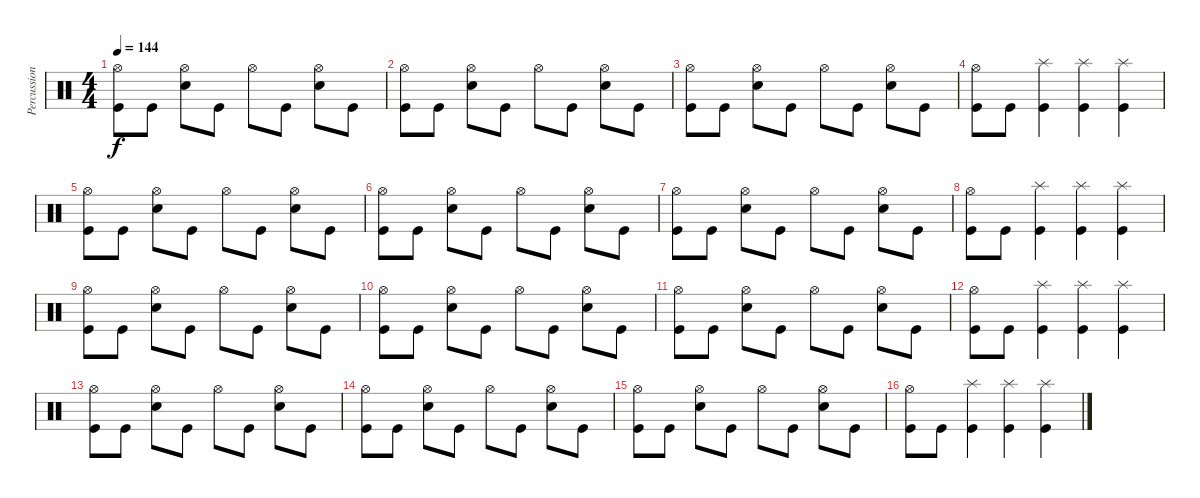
\track ("Percussion" "Percussion") {instrument percussion}
\staff {score}
\articulation defaults
\ts (4 4)
\tempo 144
\clef neutral
\ks c
("Hi-Hat (open)" "Kick (hit)").8{dy f} "Kick (hit)".8 ("Hi-Hat (open)" "Snare (hit) 2").8 "Kick (hit)".8 "Hi-Hat (open)".8 "Kick (hit)".8 ("Hi-Hat (open)" "Snare (hit) 2").8 "Kick (hit)".8 |
("Hi-Hat (open)" "Kick (hit)").8 "Kick (hit)".8 ("Hi-Hat (open)" "Snare (hit) 2").8 "Kick (hit)".8 "Hi-Hat (open)".8 "Kick (hit)".8 ("Hi-Hat (open)" "Snare (hit) 2").8 "Kick (hit)".8 |
("Hi-Hat (open)" "Kick (hit)").8 "Kick (hit)".8 ("Hi-Hat (open)" "Snare (hit) 2").8 "Kick (hit)".8 "Hi-Hat (open)".8 "Kick (hit)".8 ("Hi-Hat (open)" "Snare (hit) 2").8 "Kick (hit)".8 |
("Hi-Hat (open)" "Kick (hit)").8 "Kick (hit)".8 ("Splash (hit)" "Kick (hit)").4 ("Splash (hit)" "Kick (hit)").4 ("Splash (hit)" "Kick (hit)").4 |
("Hi-Hat (open)" "Kick (hit)").8 "Kick (hit)".8 ("Hi-Hat (open)" "Snare (hit) 2").8 "Kick (hit)".8 "Hi-Hat (open)".8 "Kick (hit)".8 ("Hi-Hat (open)" "Snare (hit) 2").8 "Kick (hit)".8 |
("Hi-Hat (open)" "Kick (hit)").8 "Kick (hit)".8 ("Hi-Hat (open)" "Snare (hit) 2").8 "Kick (hit)".8 "Hi-Hat (open)".8 "Kick (hit)".8 ("Hi-Hat (open)" "Snare (hit) 2").8 "Kick (hit)".8 |
("Hi-Hat (open)" "Kick (hit)").8 "Kick (hit)".8 ("Hi-Hat (open)" "Snare (hit) 2").8 "Kick (hit)".8 "Hi-Hat (open)".8 "Kick (hit)".8 ("Hi-Hat (open)" "Snare (hit) 2").8 "Kick (hit)".8 |
("Hi-Hat (open)" "Kick (hit)").8 "Kick (hit)".8 ("Splash (hit)" "Kick (hit)").4 ("Splash (hit)" "Kick (hit)").4 ("Splash (hit)" "Kick (hit)").4 |
("Hi-Hat (open)" "Kick (hit)").8 "Kick (hit)".8 ("Hi-Hat (open)" "Snare (hit) 2").8 "Kick (hit)".8 "Hi-Hat (open)".8 "Kick (hit)".8 ("Hi-Hat (open)" "Snare (hit) 2").8 "Kick (hit)".8 |
("Hi-Hat (open)" "Kick (hit)").8 "Kick (hit)".8 ("Hi-Hat (open)" "Snare (hit) 2").8 "Kick (hit)".8 "Hi-Hat (open)".8 "Kick (hit)".8 ("Hi-Hat (open)" "Snare (hit) 2").8 "Kick (hit)".8 |
("Hi-Hat (open)" "Kick (hit)").8 "Kick (hit)".8 ("Hi-Hat (open)" "Snare (hit) 2").8 "Kick (hit)".8 "Hi-Hat (open)".8 "Kick (hit)".8 ("Hi-Hat (open)" "Snare (hit) 2").8 "Kick (hit)".8 |
("Hi-Hat (open)" "Kick (hit)").8 "Kick (hit)".8 ("Splash (hit)" "Kick (hit)").4 ("Splash (hit)" "Kick (hit)").4 ("Splash (hit)" "Kick (hit)").4 |
("Hi-Hat (open)" "Kick (hit)").8 "Kick (hit)".8 ("Hi-Hat (open)" "Snare (hit) 2").8 "Kick (hit)".8 "Hi-Hat (open)".8 "Kick (hit)".8 ("Hi-Hat (open)" "Snare (hit) 2").8 "Kick (hit)".8 |
("Hi-Hat (open)" "Kick (hit)").8 "Kick (hit)".8 ("Hi-Hat (open)" "Snare (hit) 2").8 "Kick (hit)".8 "Hi-Hat (open)".8 "Kick (hit)".8 ("Hi-Hat (open)" "Snare (hit) 2").8 "Kick (hit)".8 |
("Hi-Hat (open)" "Kick (hit)").8 "Kick (hit)".8 ("Hi-Hat (open)" "Snare (hit) 2").8 "Kick (hit)".8 "Hi-Hat (open)".8 "Kick (hit)".8 ("Hi-Hat (open)" "Snare (hit) 2").8 "Kick (hit)".8 |
("Hi-Hat (open)" "Kick (hit)").8 "Kick (hit)".8 ("Splash (hit)" "Kick (hit)").4 ("Splash (hit)" "Kick (hit)").4 ("Splash (hit)" "Kick (hit)").4
